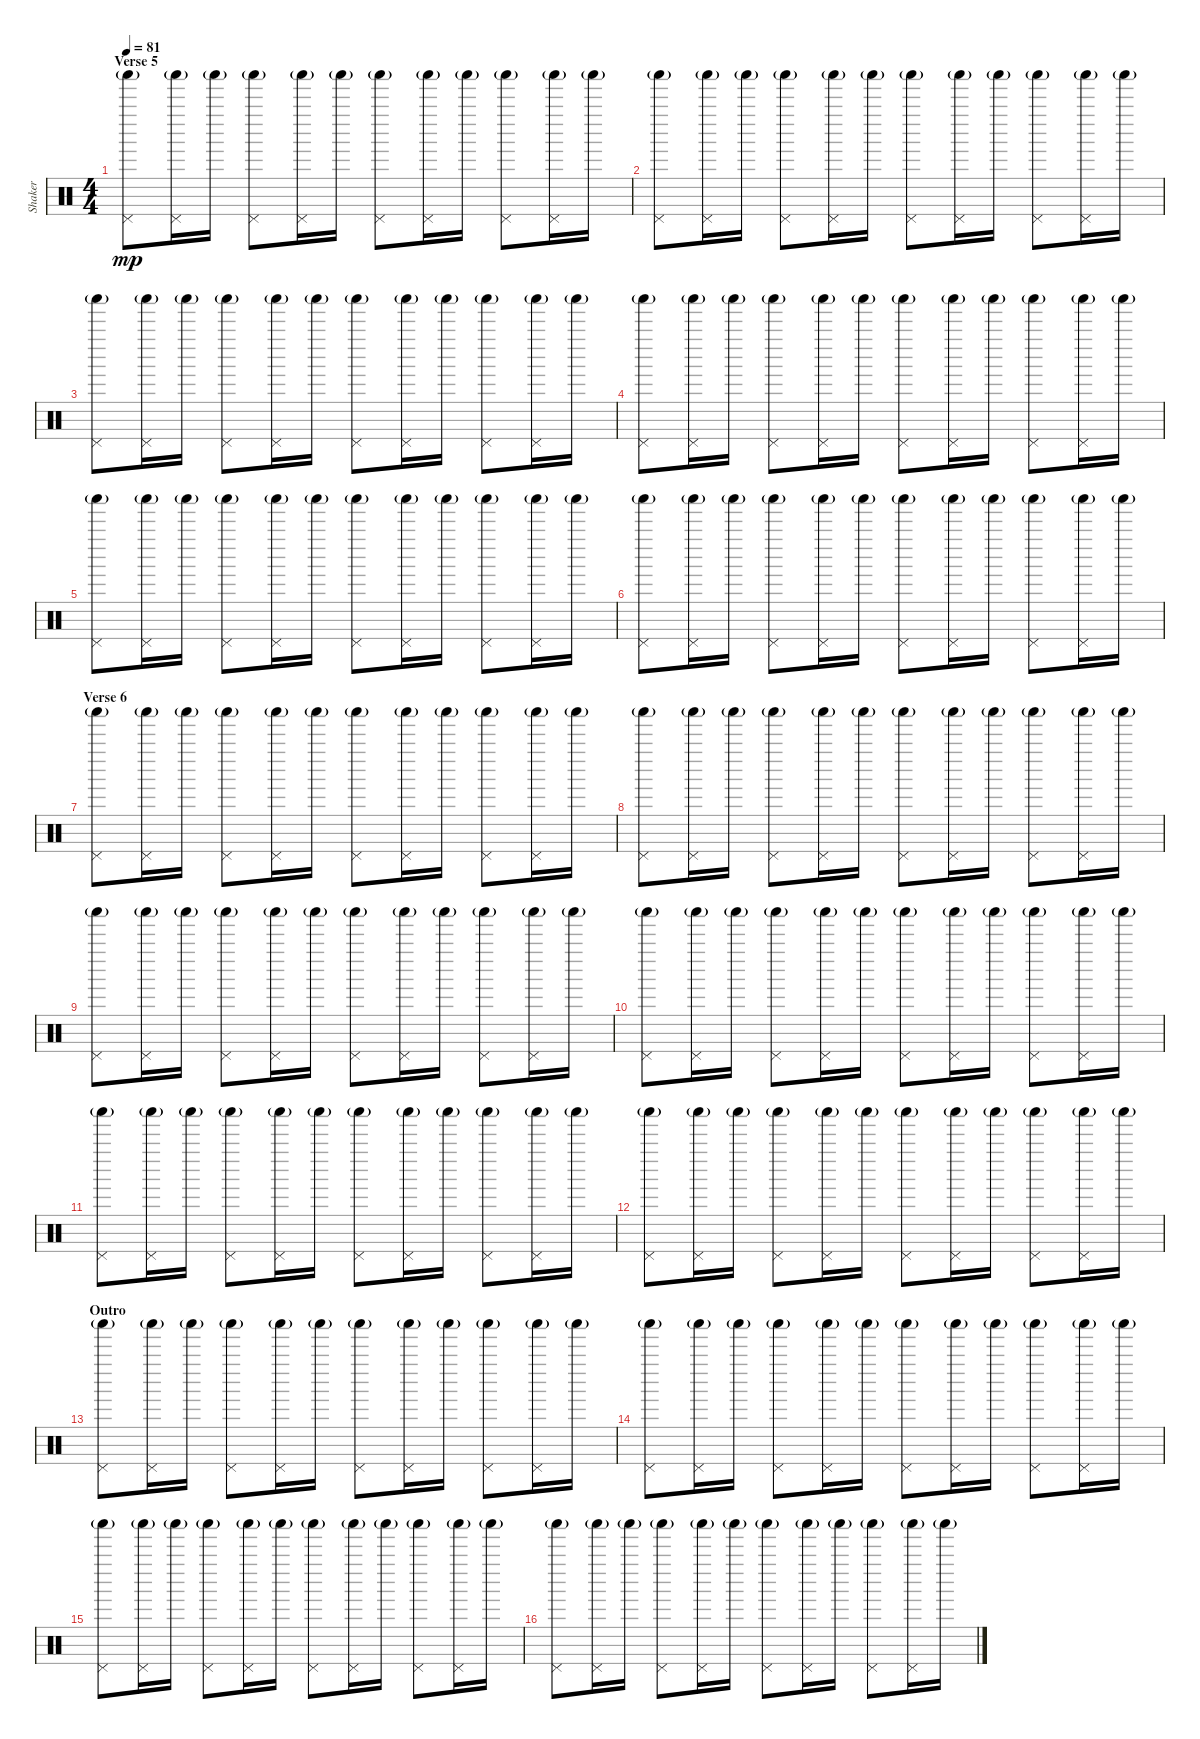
\track ("Shaker" "Shaker") {instrument percussion}
\staff {score}
\articulation defaults
\ts (4 4)
\section ("" "Verse 5")
\tempo 81
\clef neutral
\ks c
("Pedal Hi-Hat (hit)" "Shaker (hit)"{g}).8{dy mp} ("Pedal Hi-Hat (hit)" "Shaker (hit)"{g}).16 "Shaker (hit)"{g}.16 ("Pedal Hi-Hat (hit)" "Shaker (hit)"{g}).8 ("Pedal Hi-Hat (hit)" "Shaker (hit)"{g}).16 "Shaker (hit)"{g}.16 ("Pedal Hi-Hat (hit)" "Shaker (hit)"{g}).8 ("Pedal Hi-Hat (hit)" "Shaker (hit)"{g}).16 "Shaker (hit)"{g}.16 ("Pedal Hi-Hat (hit)" "Shaker (hit)"{g}).8 ("Pedal Hi-Hat (hit)" "Shaker (hit)"{g}).16 "Shaker (hit)"{g}.16 |
("Pedal Hi-Hat (hit)" "Shaker (hit)"{g}).8 ("Pedal Hi-Hat (hit)" "Shaker (hit)"{g}).16 "Shaker (hit)"{g}.16 ("Pedal Hi-Hat (hit)" "Shaker (hit)"{g}).8 ("Pedal Hi-Hat (hit)" "Shaker (hit)"{g}).16 "Shaker (hit)"{g}.16 ("Pedal Hi-Hat (hit)" "Shaker (hit)"{g}).8 ("Pedal Hi-Hat (hit)" "Shaker (hit)"{g}).16 "Shaker (hit)"{g}.16 ("Pedal Hi-Hat (hit)" "Shaker (hit)"{g}).8 ("Pedal Hi-Hat (hit)" "Shaker (hit)"{g}).16 "Shaker (hit)"{g}.16 |
("Pedal Hi-Hat (hit)" "Shaker (hit)"{g}).8 ("Pedal Hi-Hat (hit)" "Shaker (hit)"{g}).16 "Shaker (hit)"{g}.16 ("Pedal Hi-Hat (hit)" "Shaker (hit)"{g}).8 ("Pedal Hi-Hat (hit)" "Shaker (hit)"{g}).16 "Shaker (hit)"{g}.16 ("Pedal Hi-Hat (hit)" "Shaker (hit)"{g}).8 ("Pedal Hi-Hat (hit)" "Shaker (hit)"{g}).16 "Shaker (hit)"{g}.16 ("Pedal Hi-Hat (hit)" "Shaker (hit)"{g}).8 ("Pedal Hi-Hat (hit)" "Shaker (hit)"{g}).16 "Shaker (hit)"{g}.16 |
("Pedal Hi-Hat (hit)" "Shaker (hit)"{g}).8 ("Pedal Hi-Hat (hit)" "Shaker (hit)"{g}).16 "Shaker (hit)"{g}.16 ("Pedal Hi-Hat (hit)" "Shaker (hit)"{g}).8 ("Pedal Hi-Hat (hit)" "Shaker (hit)"{g}).16 "Shaker (hit)"{g}.16 ("Pedal Hi-Hat (hit)" "Shaker (hit)"{g}).8 ("Pedal Hi-Hat (hit)" "Shaker (hit)"{g}).16 "Shaker (hit)"{g}.16 ("Pedal Hi-Hat (hit)" "Shaker (hit)"{g}).8 ("Pedal Hi-Hat (hit)" "Shaker (hit)"{g}).16 "Shaker (hit)"{g}.16 |
("Pedal Hi-Hat (hit)" "Shaker (hit)"{g}).8 ("Pedal Hi-Hat (hit)" "Shaker (hit)"{g}).16 "Shaker (hit)"{g}.16 ("Pedal Hi-Hat (hit)" "Shaker (hit)"{g}).8 ("Pedal Hi-Hat (hit)" "Shaker (hit)"{g}).16 "Shaker (hit)"{g}.16 ("Pedal Hi-Hat (hit)" "Shaker (hit)"{g}).8 ("Pedal Hi-Hat (hit)" "Shaker (hit)"{g}).16 "Shaker (hit)"{g}.16 ("Pedal Hi-Hat (hit)" "Shaker (hit)"{g}).8 ("Pedal Hi-Hat (hit)" "Shaker (hit)"{g}).16 "Shaker (hit)"{g}.16 |
("Pedal Hi-Hat (hit)" "Shaker (hit)"{g}).8 ("Pedal Hi-Hat (hit)" "Shaker (hit)"{g}).16 "Shaker (hit)"{g}.16 ("Pedal Hi-Hat (hit)" "Shaker (hit)"{g}).8 ("Pedal Hi-Hat (hit)" "Shaker (hit)"{g}).16 "Shaker (hit)"{g}.16 ("Pedal Hi-Hat (hit)" "Shaker (hit)"{g}).8 ("Pedal Hi-Hat (hit)" "Shaker (hit)"{g}).16 "Shaker (hit)"{g}.16 ("Pedal Hi-Hat (hit)" "Shaker (hit)"{g}).8 ("Pedal Hi-Hat (hit)" "Shaker (hit)"{g}).16 "Shaker (hit)"{g}.16 |
\section ("" "Verse 6")
("Pedal Hi-Hat (hit)" "Shaker (hit)"{g}).8 ("Pedal Hi-Hat (hit)" "Shaker (hit)"{g}).16 "Shaker (hit)"{g}.16 ("Pedal Hi-Hat (hit)" "Shaker (hit)"{g}).8 ("Pedal Hi-Hat (hit)" "Shaker (hit)"{g}).16 "Shaker (hit)"{g}.16 ("Pedal Hi-Hat (hit)" "Shaker (hit)"{g}).8 ("Pedal Hi-Hat (hit)" "Shaker (hit)"{g}).16 "Shaker (hit)"{g}.16 ("Pedal Hi-Hat (hit)" "Shaker (hit)"{g}).8 ("Pedal Hi-Hat (hit)" "Shaker (hit)"{g}).16 "Shaker (hit)"{g}.16 |
("Pedal Hi-Hat (hit)" "Shaker (hit)"{g}).8 ("Pedal Hi-Hat (hit)" "Shaker (hit)"{g}).16 "Shaker (hit)"{g}.16 ("Pedal Hi-Hat (hit)" "Shaker (hit)"{g}).8 ("Pedal Hi-Hat (hit)" "Shaker (hit)"{g}).16 "Shaker (hit)"{g}.16 ("Pedal Hi-Hat (hit)" "Shaker (hit)"{g}).8 ("Pedal Hi-Hat (hit)" "Shaker (hit)"{g}).16 "Shaker (hit)"{g}.16 ("Pedal Hi-Hat (hit)" "Shaker (hit)"{g}).8 ("Pedal Hi-Hat (hit)" "Shaker (hit)"{g}).16 "Shaker (hit)"{g}.16 |
("Pedal Hi-Hat (hit)" "Shaker (hit)"{g}).8 ("Pedal Hi-Hat (hit)" "Shaker (hit)"{g}).16 "Shaker (hit)"{g}.16 ("Pedal Hi-Hat (hit)" "Shaker (hit)"{g}).8 ("Pedal Hi-Hat (hit)" "Shaker (hit)"{g}).16 "Shaker (hit)"{g}.16 ("Pedal Hi-Hat (hit)" "Shaker (hit)"{g}).8 ("Pedal Hi-Hat (hit)" "Shaker (hit)"{g}).16 "Shaker (hit)"{g}.16 ("Pedal Hi-Hat (hit)" "Shaker (hit)"{g}).8 ("Pedal Hi-Hat (hit)" "Shaker (hit)"{g}).16 "Shaker (hit)"{g}.16 |
("Pedal Hi-Hat (hit)" "Shaker (hit)"{g}).8 ("Pedal Hi-Hat (hit)" "Shaker (hit)"{g}).16 "Shaker (hit)"{g}.16 ("Pedal Hi-Hat (hit)" "Shaker (hit)"{g}).8 ("Pedal Hi-Hat (hit)" "Shaker (hit)"{g}).16 "Shaker (hit)"{g}.16 ("Pedal Hi-Hat (hit)" "Shaker (hit)"{g}).8 ("Pedal Hi-Hat (hit)" "Shaker (hit)"{g}).16 "Shaker (hit)"{g}.16 ("Pedal Hi-Hat (hit)" "Shaker (hit)"{g}).8 ("Pedal Hi-Hat (hit)" "Shaker (hit)"{g}).16 "Shaker (hit)"{g}.16 |
("Pedal Hi-Hat (hit)" "Shaker (hit)"{g}).8 ("Pedal Hi-Hat (hit)" "Shaker (hit)"{g}).16 "Shaker (hit)"{g}.16 ("Pedal Hi-Hat (hit)" "Shaker (hit)"{g}).8 ("Pedal Hi-Hat (hit)" "Shaker (hit)"{g}).16 "Shaker (hit)"{g}.16 ("Pedal Hi-Hat (hit)" "Shaker (hit)"{g}).8 ("Pedal Hi-Hat (hit)" "Shaker (hit)"{g}).16 "Shaker (hit)"{g}.16 ("Pedal Hi-Hat (hit)" "Shaker (hit)"{g}).8 ("Pedal Hi-Hat (hit)" "Shaker (hit)"{g}).16 "Shaker (hit)"{g}.16 |
("Pedal Hi-Hat (hit)" "Shaker (hit)"{g}).8 ("Pedal Hi-Hat (hit)" "Shaker (hit)"{g}).16 "Shaker (hit)"{g}.16 ("Pedal Hi-Hat (hit)" "Shaker (hit)"{g}).8 ("Pedal Hi-Hat (hit)" "Shaker (hit)"{g}).16 "Shaker (hit)"{g}.16 ("Pedal Hi-Hat (hit)" "Shaker (hit)"{g}).8 ("Pedal Hi-Hat (hit)" "Shaker (hit)"{g}).16 "Shaker (hit)"{g}.16 ("Pedal Hi-Hat (hit)" "Shaker (hit)"{g}).8 ("Pedal Hi-Hat (hit)" "Shaker (hit)"{g}).16 "Shaker (hit)"{g}.16 |
\section ("" "Outro")
("Pedal Hi-Hat (hit)" "Shaker (hit)"{g}).8 ("Pedal Hi-Hat (hit)" "Shaker (hit)"{g}).16 "Shaker (hit)"{g}.16 ("Pedal Hi-Hat (hit)" "Shaker (hit)"{g}).8 ("Pedal Hi-Hat (hit)" "Shaker (hit)"{g}).16 "Shaker (hit)"{g}.16 ("Pedal Hi-Hat (hit)" "Shaker (hit)"{g}).8 ("Pedal Hi-Hat (hit)" "Shaker (hit)"{g}).16 "Shaker (hit)"{g}.16 ("Pedal Hi-Hat (hit)" "Shaker (hit)"{g}).8 ("Pedal Hi-Hat (hit)" "Shaker (hit)"{g}).16 "Shaker (hit)"{g}.16 |
("Pedal Hi-Hat (hit)" "Shaker (hit)"{g}).8 ("Pedal Hi-Hat (hit)" "Shaker (hit)"{g}).16 "Shaker (hit)"{g}.16 ("Pedal Hi-Hat (hit)" "Shaker (hit)"{g}).8 ("Pedal Hi-Hat (hit)" "Shaker (hit)"{g}).16 "Shaker (hit)"{g}.16 ("Pedal Hi-Hat (hit)" "Shaker (hit)"{g}).8 ("Pedal Hi-Hat (hit)" "Shaker (hit)"{g}).16 "Shaker (hit)"{g}.16 ("Pedal Hi-Hat (hit)" "Shaker (hit)"{g}).8 ("Pedal Hi-Hat (hit)" "Shaker (hit)"{g}).16 "Shaker (hit)"{g}.16 |
("Pedal Hi-Hat (hit)" "Shaker (hit)"{g}).8 ("Pedal Hi-Hat (hit)" "Shaker (hit)"{g}).16 "Shaker (hit)"{g}.16 ("Pedal Hi-Hat (hit)" "Shaker (hit)"{g}).8 ("Pedal Hi-Hat (hit)" "Shaker (hit)"{g}).16 "Shaker (hit)"{g}.16 ("Pedal Hi-Hat (hit)" "Shaker (hit)"{g}).8 ("Pedal Hi-Hat (hit)" "Shaker (hit)"{g}).16 "Shaker (hit)"{g}.16 ("Pedal Hi-Hat (hit)" "Shaker (hit)"{g}).8 ("Pedal Hi-Hat (hit)" "Shaker (hit)"{g}).16 "Shaker (hit)"{g}.16 |
("Pedal Hi-Hat (hit)" "Shaker (hit)"{g}).8 ("Pedal Hi-Hat (hit)" "Shaker (hit)"{g}).16 "Shaker (hit)"{g}.16 ("Pedal Hi-Hat (hit)" "Shaker (hit)"{g}).8 ("Pedal Hi-Hat (hit)" "Shaker (hit)"{g}).16 "Shaker (hit)"{g}.16 ("Pedal Hi-Hat (hit)" "Shaker (hit)"{g}).8 ("Pedal Hi-Hat (hit)" "Shaker (hit)"{g}).16 "Shaker (hit)"{g}.16 ("Pedal Hi-Hat (hit)" "Shaker (hit)"{g}).8 ("Pedal Hi-Hat (hit)" "Shaker (hit)"{g}).16 "Shaker (hit)"{g}.16
